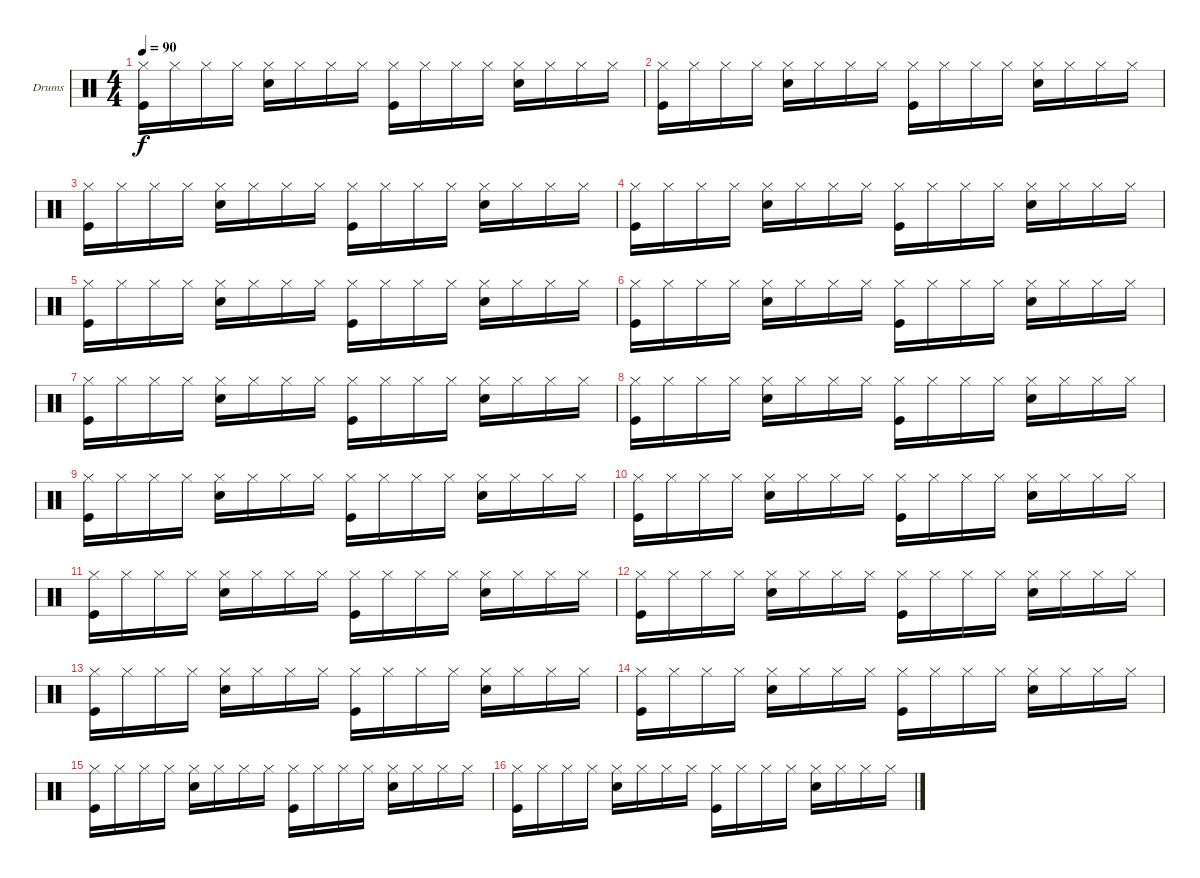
\defaultSystemsLayout 4
\bracketExtendMode groupsimilarinstruments
\firstSystemTrackNameOrientation horizontal
\otherSystemsTrackNameOrientation horizontal
\track ("Drumkit" "Drums") {instrument percussion}
\staff {score}
\articulation defaults
\ts (4 4)
\tempo 90
\clef neutral
\scale
0.333333
\ks c
("Kick (hit)" "Hi-Hat (closed)").16{dy f} "Hi-Hat (closed)".16 "Hi-Hat (closed)".16 "Hi-Hat (closed)".16 ("Hi-Hat (closed)" "Snare (hit) 2").16 "Hi-Hat (closed)".16 "Hi-Hat (closed)".16 "Hi-Hat (closed)".16 ("Hi-Hat (closed)" "Kick (hit)").16 "Hi-Hat (closed)".16 "Hi-Hat (closed)".16 "Hi-Hat (closed)".16 ("Snare (hit) 2" "Hi-Hat (closed)").16 "Hi-Hat (closed)".16 "Hi-Hat (closed)".16 "Hi-Hat (closed)".16 |
\scale
0.333333 ("Kick (hit)" "Hi-Hat (closed)").16 "Hi-Hat (closed)".16 "Hi-Hat (closed)".16 "Hi-Hat (closed)".16 ("Hi-Hat (closed)" "Snare (hit) 2").16 "Hi-Hat (closed)".16 "Hi-Hat (closed)".16 "Hi-Hat (closed)".16 ("Kick (hit)" "Hi-Hat (closed)").16 "Hi-Hat (closed)".16 "Hi-Hat (closed)".16 "Hi-Hat (closed)".16 ("Snare (hit) 2" "Hi-Hat (closed)").16 "Hi-Hat (closed)".16 "Hi-Hat (closed)".16 "Hi-Hat (closed)".16 |
\scale
0.333333 ("Hi-Hat (closed)" "Kick (hit)").16 "Hi-Hat (closed)".16 "Hi-Hat (closed)".16 "Hi-Hat (closed)".16 ("Snare (hit) 2" "Hi-Hat (closed)").16 "Hi-Hat (closed)".16 "Hi-Hat (closed)".16 "Hi-Hat (closed)".16 ("Kick (hit)" "Hi-Hat (closed)").16 "Hi-Hat (closed)".16 "Hi-Hat (closed)".16 "Hi-Hat (closed)".16 ("Hi-Hat (closed)" "Snare (hit) 2").16 "Hi-Hat (closed)".16 "Hi-Hat (closed)".16 "Hi-Hat (closed)".16 |
\scale
0.333333 ("Kick (hit)" "Hi-Hat (closed)").16 "Hi-Hat (closed)".16 "Hi-Hat (closed)".16 "Hi-Hat (closed)".16 ("Snare (hit) 2" "Hi-Hat (closed)").16 "Hi-Hat (closed)".16 "Hi-Hat (closed)".16 "Hi-Hat (closed)".16 ("Hi-Hat (closed)" "Kick (hit)").16 "Hi-Hat (closed)".16 "Hi-Hat (closed)".16 "Hi-Hat (closed)".16 ("Snare (hit) 2" "Hi-Hat (closed)").16 "Hi-Hat (closed)".16 "Hi-Hat (closed)".16 "Hi-Hat (closed)".16 |
\scale
0.333333 ("Kick (hit)" "Hi-Hat (closed)").16 "Hi-Hat (closed)".16 "Hi-Hat (closed)".16 "Hi-Hat (closed)".16 ("Hi-Hat (closed)" "Snare (hit) 2").16 "Hi-Hat (closed)".16 "Hi-Hat (closed)".16 "Hi-Hat (closed)".16 ("Kick (hit)" "Hi-Hat (closed)").16 "Hi-Hat (closed)".16 "Hi-Hat (closed)".16 "Hi-Hat (closed)".16 ("Snare (hit) 2" "Hi-Hat (closed)").16 "Hi-Hat (closed)".16 "Hi-Hat (closed)".16 "Hi-Hat (closed)".16 |
\scale
0.333333 ("Kick (hit)" "Hi-Hat (closed)").16 "Hi-Hat (closed)".16 "Hi-Hat (closed)".16 "Hi-Hat (closed)".16 ("Snare (hit) 2" "Hi-Hat (closed)").16 "Hi-Hat (closed)".16 "Hi-Hat (closed)".16 "Hi-Hat (closed)".16 ("Hi-Hat (closed)" "Kick (hit)").16 "Hi-Hat (closed)".16 "Hi-Hat (closed)".16 "Hi-Hat (closed)".16 ("Snare (hit) 2" "Hi-Hat (closed)").16 "Hi-Hat (closed)".16 "Hi-Hat (closed)".16 "Hi-Hat (closed)".16 |
\scale
0.333333 ("Kick (hit)" "Hi-Hat (closed)").16 "Hi-Hat (closed)".16 "Hi-Hat (closed)".16 "Hi-Hat (closed)".16 ("Hi-Hat (closed)" "Snare (hit) 2").16 "Hi-Hat (closed)".16 "Hi-Hat (closed)".16 "Hi-Hat (closed)".16 ("Kick (hit)" "Hi-Hat (closed)").16 "Hi-Hat (closed)".16 "Hi-Hat (closed)".16 "Hi-Hat (closed)".16 ("Snare (hit) 2" "Hi-Hat (closed)").16 "Hi-Hat (closed)".16 "Hi-Hat (closed)".16 "Hi-Hat (closed)".16 |
\scale
0.333333 ("Hi-Hat (closed)" "Kick (hit)").16 "Hi-Hat (closed)".16 "Hi-Hat (closed)".16 "Hi-Hat (closed)".16 ("Snare (hit) 2" "Hi-Hat (closed)").16 "Hi-Hat (closed)".16 "Hi-Hat (closed)".16 "Hi-Hat (closed)".16 ("Kick (hit)" "Hi-Hat (closed)").16 "Hi-Hat (closed)".16 "Hi-Hat (closed)".16 "Hi-Hat (closed)".16 ("Hi-Hat (closed)" "Snare (hit) 2").16 "Hi-Hat (closed)".16 "Hi-Hat (closed)".16 "Hi-Hat (closed)".16 |
\scale
0.333333 ("Kick (hit)" "Hi-Hat (closed)").16 "Hi-Hat (closed)".16 "Hi-Hat (closed)".16 "Hi-Hat (closed)".16 ("Snare (hit) 2" "Hi-Hat (closed)").16 "Hi-Hat (closed)".16 "Hi-Hat (closed)".16 "Hi-Hat (closed)".16 ("Hi-Hat (closed)" "Kick (hit)").16 "Hi-Hat (closed)".16 "Hi-Hat (closed)".16 "Hi-Hat (closed)".16 ("Snare (hit) 2" "Hi-Hat (closed)").16 "Hi-Hat (closed)".16 "Hi-Hat (closed)".16 "Hi-Hat (closed)".16 |
\scale
0.333333 ("Kick (hit)" "Hi-Hat (closed)").16 "Hi-Hat (closed)".16 "Hi-Hat (closed)".16 "Hi-Hat (closed)".16 ("Hi-Hat (closed)" "Snare (hit) 2").16 "Hi-Hat (closed)".16 "Hi-Hat (closed)".16 "Hi-Hat (closed)".16 ("Kick (hit)" "Hi-Hat (closed)").16 "Hi-Hat (closed)".16 "Hi-Hat (closed)".16 "Hi-Hat (closed)".16 ("Snare (hit) 2" "Hi-Hat (closed)").16 "Hi-Hat (closed)".16 "Hi-Hat (closed)".16 "Hi-Hat (closed)".16 |
\scale
0.333333 ("Hi-Hat (closed)" "Kick (hit)").16 "Hi-Hat (closed)".16 "Hi-Hat (closed)".16 "Hi-Hat (closed)".16 ("Snare (hit) 2" "Hi-Hat (closed)").16 "Hi-Hat (closed)".16 "Hi-Hat (closed)".16 "Hi-Hat (closed)".16 ("Kick (hit)" "Hi-Hat (closed)").16 "Hi-Hat (closed)".16 "Hi-Hat (closed)".16 "Hi-Hat (closed)".16 ("Hi-Hat (closed)" "Snare (hit) 2").16 "Hi-Hat (closed)".16 "Hi-Hat (closed)".16 "Hi-Hat (closed)".16 |
\scale
0.333333 ("Kick (hit)" "Hi-Hat (closed)").16 "Hi-Hat (closed)".16 "Hi-Hat (closed)".16 "Hi-Hat (closed)".16 ("Snare (hit) 2" "Hi-Hat (closed)").16 "Hi-Hat (closed)".16 "Hi-Hat (closed)".16 "Hi-Hat (closed)".16 ("Hi-Hat (closed)" "Kick (hit)").16 "Hi-Hat (closed)".16 "Hi-Hat (closed)".16 "Hi-Hat (closed)".16 ("Snare (hit) 2" "Hi-Hat (closed)").16 "Hi-Hat (closed)".16 "Hi-Hat (closed)".16 "Hi-Hat (closed)".16 |
\scale
0.333333 ("Kick (hit)" "Hi-Hat (closed)").16 "Hi-Hat (closed)".16 "Hi-Hat (closed)".16 "Hi-Hat (closed)".16 ("Hi-Hat (closed)" "Snare (hit) 2").16 "Hi-Hat (closed)".16 "Hi-Hat (closed)".16 "Hi-Hat (closed)".16 ("Kick (hit)" "Hi-Hat (closed)").16 "Hi-Hat (closed)".16 "Hi-Hat (closed)".16 "Hi-Hat (closed)".16 ("Snare (hit) 2" "Hi-Hat (closed)").16 "Hi-Hat (closed)".16 "Hi-Hat (closed)".16 "Hi-Hat (closed)".16 |
\scale
0.333333 ("Hi-Hat (closed)" "Kick (hit)").16 "Hi-Hat (closed)".16 "Hi-Hat (closed)".16 "Hi-Hat (closed)".16 ("Snare (hit) 2" "Hi-Hat (closed)").16 "Hi-Hat (closed)".16 "Hi-Hat (closed)".16 "Hi-Hat (closed)".16 ("Kick (hit)" "Hi-Hat (closed)").16 "Hi-Hat (closed)".16 "Hi-Hat (closed)".16 "Hi-Hat (closed)".16 ("Hi-Hat (closed)" "Snare (hit) 2").16 "Hi-Hat (closed)".16 "Hi-Hat (closed)".16 "Hi-Hat (closed)".16 |
\scale
0.333333 ("Kick (hit)" "Hi-Hat (closed)").16 "Hi-Hat (closed)".16 "Hi-Hat (closed)".16 "Hi-Hat (closed)".16 ("Snare (hit) 2" "Hi-Hat (closed)").16 "Hi-Hat (closed)".16 "Hi-Hat (closed)".16 "Hi-Hat (closed)".16 ("Hi-Hat (closed)" "Kick (hit)").16 "Hi-Hat (closed)".16 "Hi-Hat (closed)".16 "Hi-Hat (closed)".16 ("Snare (hit) 2" "Hi-Hat (closed)").16 "Hi-Hat (closed)".16 "Hi-Hat (closed)".16 "Hi-Hat (closed)".16 |
\scale
0.333333 ("Kick (hit)" "Hi-Hat (closed)").16 "Hi-Hat (closed)".16 "Hi-Hat (closed)".16 "Hi-Hat (closed)".16 ("Hi-Hat (closed)" "Snare (hit) 2").16 "Hi-Hat (closed)".16 "Hi-Hat (closed)".16 "Hi-Hat (closed)".16 ("Kick (hit)" "Hi-Hat (closed)").16 "Hi-Hat (closed)".16 "Hi-Hat (closed)".16 "Hi-Hat (closed)".16 ("Snare (hit) 2" "Hi-Hat (closed)").16 "Hi-Hat (closed)".16 "Hi-Hat (closed)".16 "Hi-Hat (closed)".16
